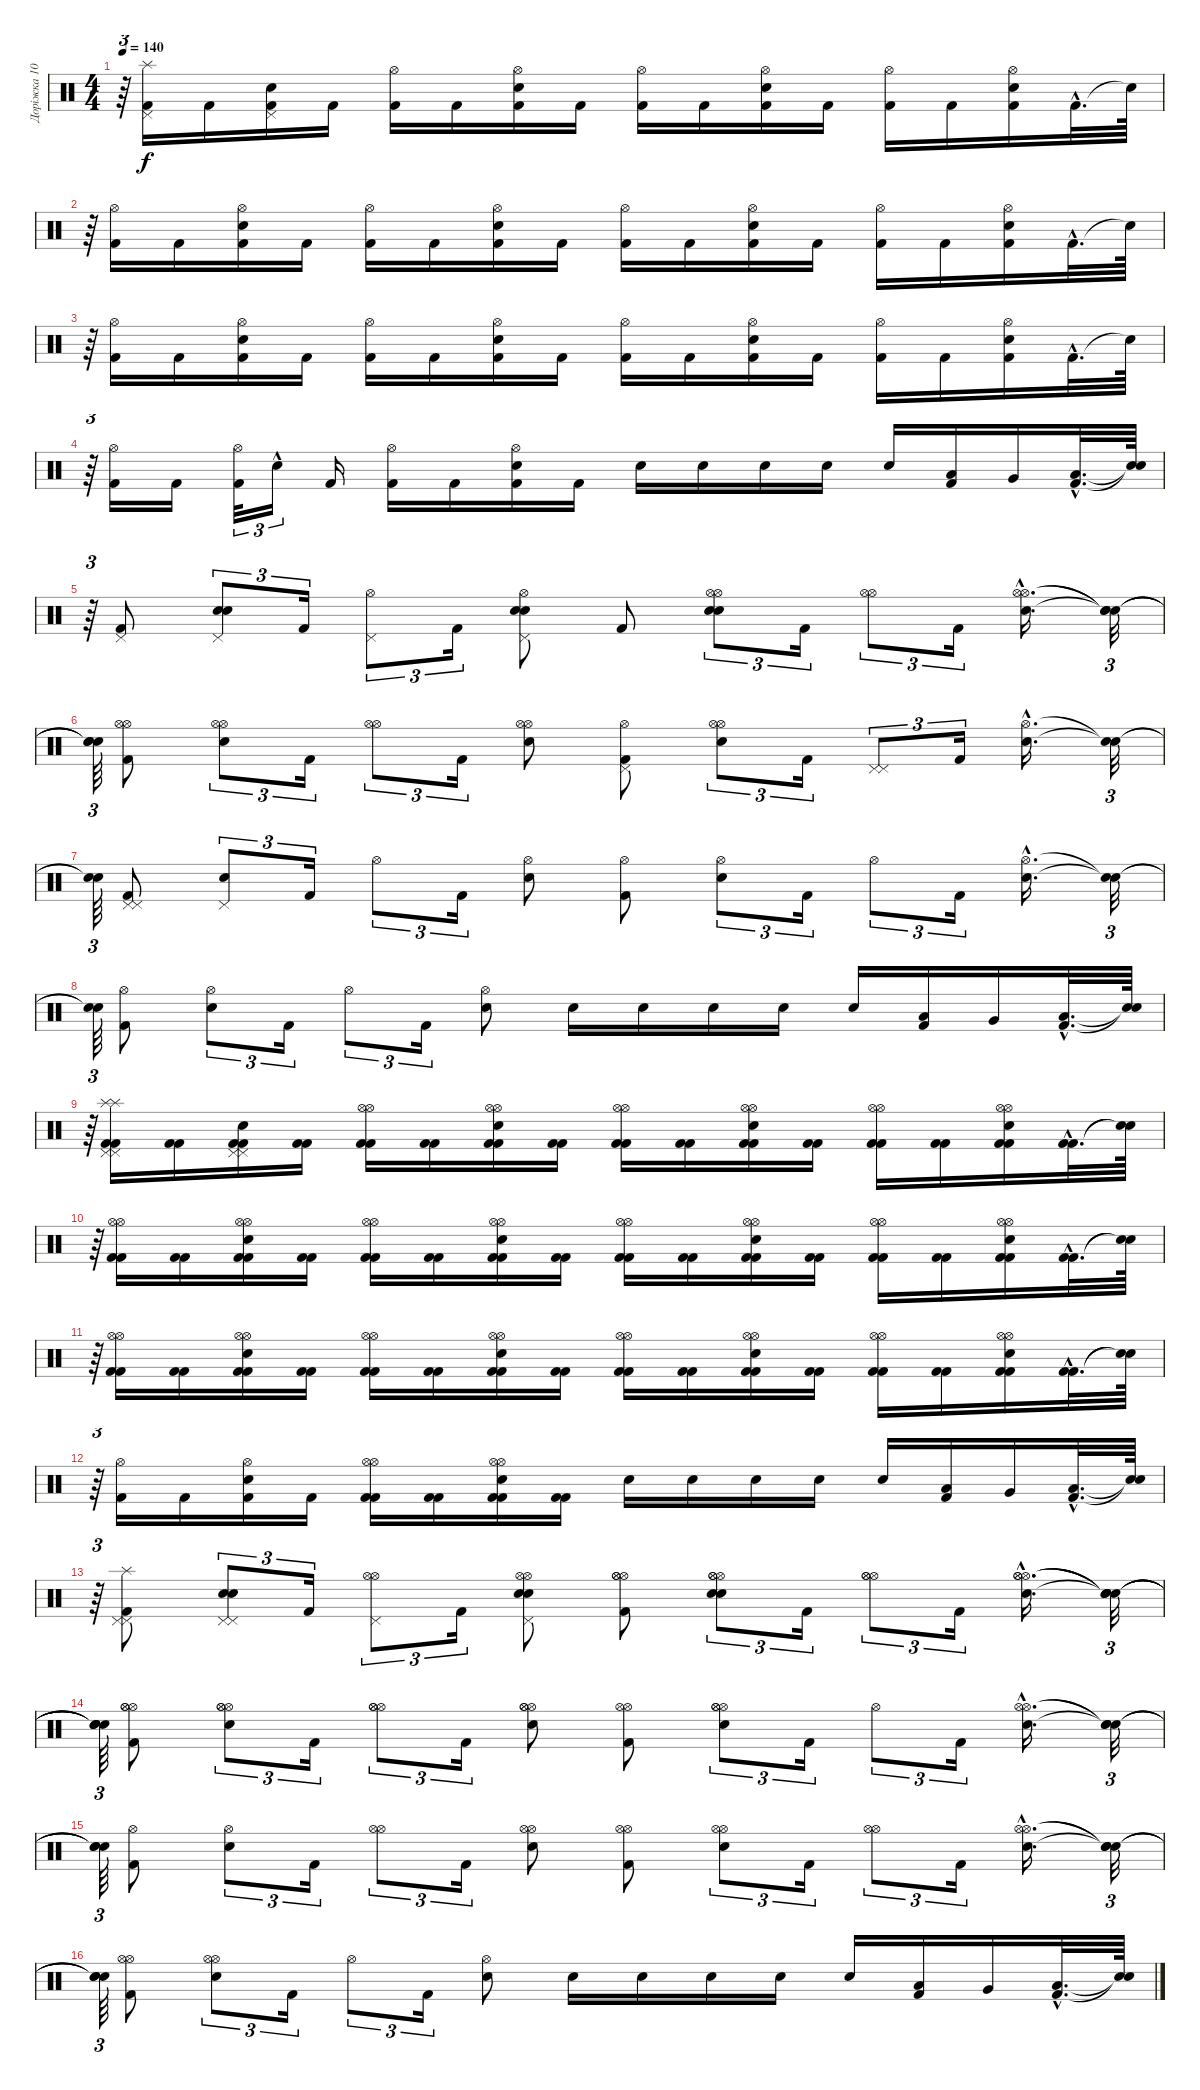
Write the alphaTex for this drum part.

\track ("Доріжка 10" "Доріжка 10") {instrument percussion}
\staff {score}
\articulation defaults
\ts (4 4)
\tempo 140
\clef neutral
\ks c
r.64{tu (3 2) dy f} ("Kick (hit) 2" "Pedal Hi-Hat (hit)" "Splash (hit)").16 "Kick (hit) 2".16 ("Kick (hit) 2" "Pedal Hi-Hat (hit)" "Electric Snare (hit)").16 "Kick (hit) 2".16 ("Kick (hit) 2" "Hi-Hat (open)").16 "Kick (hit) 2".16 ("Kick (hit) 2" "Hi-Hat (open)" "Electric Snare (hit)").16 "Kick (hit) 2".16 ("Hi-Hat (open)" "Kick (hit) 2").16 "Kick (hit) 2".16 ("Kick (hit) 2" "Hi-Hat (open)" "Electric Snare (hit)").16 "Kick (hit) 2".16 ("Kick (hit) 2" "Hi-Hat (open)").16 "Kick (hit) 2".16 ("Kick (hit) 2" "Hi-Hat (open)" "Electric Snare (hit)").16 "Kick (hit) 2"{hac}.32{d} "Snare (hit)"{t}.64 |
r.64{tu (3 2)} ("Kick (hit) 2" "Hi-Hat (open)").16 "Kick (hit) 2".16 ("Kick (hit) 2" "Hi-Hat (open)" "Electric Snare (hit)").16 "Kick (hit) 2".16 ("Kick (hit) 2" "Hi-Hat (open)").16 "Kick (hit) 2".16 ("Kick (hit) 2" "Hi-Hat (open)" "Electric Snare (hit)").16 "Kick (hit) 2".16 ("Kick (hit) 2" "Hi-Hat (open)").16 "Kick (hit) 2".16 ("Kick (hit) 2" "Hi-Hat (open)" "Electric Snare (hit)").16 "Kick (hit) 2".16 ("Kick (hit) 2" "Hi-Hat (open)").16 "Kick (hit) 2".16 ("Kick (hit) 2" "Hi-Hat (open)" "Electric Snare (hit)").16 "Kick (hit) 2"{hac}.32{d} "Snare (hit)"{t}.64 |
r.64{tu (3 2)} ("Kick (hit) 2" "Hi-Hat (open)").16 "Kick (hit) 2".16 ("Kick (hit) 2" "Hi-Hat (open)" "Electric Snare (hit)").16 "Kick (hit) 2".16 ("Kick (hit) 2" "Hi-Hat (open)").16 "Kick (hit) 2".16 ("Kick (hit) 2" "Hi-Hat (open)" "Electric Snare (hit)").16 "Kick (hit) 2".16 ("Kick (hit) 2" "Hi-Hat (open)").16 "Kick (hit) 2".16 ("Kick (hit) 2" "Hi-Hat (open)" "Electric Snare (hit)").16 "Kick (hit) 2".16 ("Kick (hit) 2" "Hi-Hat (open)").16 "Kick (hit) 2".16 ("Kick (hit) 2" "Hi-Hat (open)" "Electric Snare (hit)").16 "Kick (hit) 2"{hac}.32{d} "Snare (hit)"{t}.64 |
r.64{tu (3 2)} ("Hi-Hat (open)" "Kick (hit) 2").16 "Kick (hit) 2".16 ("Kick (hit) 2" "Hi-Hat (open)").32{tu (3 2)} "Electric Snare (hit)"{hac}.16{tu (3 2)} "Kick (hit) 2".16 ("Hi-Hat (open)" "Kick (hit) 2").16 "Kick (hit) 2".16 ("Kick (hit) 2" "Hi-Hat (open)" "Electric Snare (hit)").16 "Kick (hit) 2".16 "Electric Snare (hit)".16 "Electric Snare (hit)".16 "Electric Snare (hit)".16 "Electric Snare (hit)".16 "Electric Snare (hit)".16 ("Low Tom (hit)" "Kick (hit) 2").16 "Very Low Tom (hit)".16 ("Kick (hit) 2"{hac} "Low Floor Tom (hit)"{hac}).32{d} ("Snare (hit)"{t} "Snare (hit)"{t}).64 |
r.64{tu (3 2)} ("Kick (hit) 2" "Pedal Hi-Hat (hit)").8 ("Pedal Hi-Hat (hit)" "Electric Snare (hit)" "Electric Snare (hit)").8{tu (3 2)} "Kick (hit) 2".16{tu (3 2)} ("Hi-Hat (open)" "Pedal Hi-Hat (hit)").8{tu (3 2)} "Kick (hit) 2".16{tu (3 2)} ("Hi-Hat (open)" "Electric Snare (hit)" "Electric Snare (hit)" "Pedal Hi-Hat (hit)").8 "Kick (hit) 2".8 ("Electric Snare (hit)" "Electric Snare (hit)" "Hi-Hat (open)" "Hi-Hat (open)").8{tu (3 2)} "Kick (hit) 2".16{tu (3 2)} ("Hi-Hat (open)" "Hi-Hat (open)").8{tu (3 2)} "Kick (hit) 2".16{tu (3 2)} ("Hi-Hat (open)"{hac} "Electric Snare (hit)"{hac} "Hi-Hat (open)"{hac}).16{d} ("Snare (hit)"{t} "Snare (hit)"{t} "Snare (hit)"{t}).32{tu (3 2)} |
("Snare (hit)"{t} "Snare (hit)"{t} "Snare (hit)"{t}).64{tu (3 2)} ("Hi-Hat (open)" "Kick (hit) 2" "Hi-Hat (open)").8 ("Hi-Hat (open)" "Electric Snare (hit)" "Hi-Hat (open)").8{tu (3 2)} "Kick (hit) 2".16{tu (3 2)} ("Hi-Hat (open)" "Hi-Hat (open)").8{tu (3 2)} "Kick (hit) 2".16{tu (3 2)} ("Hi-Hat (open)" "Electric Snare (hit)" "Hi-Hat (open)").8 ("Pedal Hi-Hat (hit)" "Hi-Hat (open)" "Kick (hit) 2").8 ("Hi-Hat (open)" "Hi-Hat (open)" "Electric Snare (hit)").8{tu (3 2)} "Kick (hit) 2".16{tu (3 2)} ("Pedal Hi-Hat (hit)" "Pedal Hi-Hat (hit)").8{tu (3 2)} "Kick (hit) 2".16{tu (3 2)} ("Hi-Hat (open)"{hac} "Electric Snare (hit)"{hac}).16{d} ("Snare (hit)"{t} "Snare (hit)"{t}).32{tu (3 2)} |
("Snare (hit)"{t} "Snare (hit)"{t}).64{tu (3 2)} ("Kick (hit) 2" "Pedal Hi-Hat (hit)" "Pedal Hi-Hat (hit)").8 ("Pedal Hi-Hat (hit)" "Electric Snare (hit)").8{tu (3 2)} "Kick (hit) 2".16{tu (3 2)} "Hi-Hat (open)".8{tu (3 2)} "Kick (hit) 2".16{tu (3 2)} ("Hi-Hat (open)" "Electric Snare (hit)").8 ("Kick (hit) 2" "Hi-Hat (open)").8 ("Electric Snare (hit)" "Hi-Hat (open)").8{tu (3 2)} "Kick (hit) 2".16{tu (3 2)} "Hi-Hat (open)".8{tu (3 2)} "Kick (hit) 2".16{tu (3 2)} ("Hi-Hat (open)"{hac} "Electric Snare (hit)"{hac}).16{d} ("Snare (hit)"{t} "Snare (hit)"{t}).32{tu (3 2)} |
("Snare (hit)"{t} "Snare (hit)"{t}).64{tu (3 2)} ("Hi-Hat (open)" "Kick (hit) 2").8 ("Hi-Hat (open)" "Electric Snare (hit)").8{tu (3 2)} "Kick (hit) 2".16{tu (3 2)} "Hi-Hat (open)".8{tu (3 2)} "Kick (hit) 2".16{tu (3 2)} ("Electric Snare (hit)" "Hi-Hat (open)").8 "Electric Snare (hit)".16 "Electric Snare (hit)".16 "Electric Snare (hit)".16 "Electric Snare (hit)".16 "Electric Snare (hit)".16 ("Kick (hit) 2" "Low Tom (hit)").16 "Very Low Tom (hit)".16 ("Kick (hit) 2"{hac} "Low Floor Tom (hit)"{hac}).32{d} ("Snare (hit)"{t} "Snare (hit)"{t}).64 |
r.64{tu (3 2)} ("Pedal Hi-Hat (hit)" "Splash (hit)" "Pedal Hi-Hat (hit)" "Splash (hit)" "Kick (hit) 2" "Kick (hit) 2").16 ("Kick (hit) 2" "Kick (hit) 2").16 ("Kick (hit) 2" "Electric Snare (hit)" "Pedal Hi-Hat (hit)" "Pedal Hi-Hat (hit)" "Kick (hit) 2").16 ("Kick (hit) 2" "Kick (hit) 2").16 ("Kick (hit) 2" "Hi-Hat (open)" "Hi-Hat (open)" "Kick (hit) 2").16 ("Kick (hit) 2" "Kick (hit) 2").16 ("Electric Snare (hit)" "Hi-Hat (open)" "Kick (hit) 2" "Kick (hit) 2" "Hi-Hat (open)").16 ("Kick (hit) 2" "Kick (hit) 2").16 ("Hi-Hat (open)" "Kick (hit) 2" "Hi-Hat (open)" "Kick (hit) 2").16 ("Kick (hit) 2" "Kick (hit) 2").16 ("Kick (hit) 2" "Electric Snare (hit)" "Kick (hit) 2" "Hi-Hat (open)" "Hi-Hat (open)").16 ("Kick (hit) 2" "Kick (hit) 2").16 ("Hi-Hat (open)" "Hi-Hat (open)" "Kick (hit) 2" "Kick (hit) 2").16 ("Kick (hit) 2" "Kick (hit) 2").16 ("Electric Snare (hit)" "Kick (hit) 2" "Hi-Hat (open)" "Kick (hit) 2" "Hi-Hat (open)").16 ("Kick (hit) 2"{hac} "Kick (hit) 2"{hac}).32{d} ("Snare (hit)"{t} "Snare (hit)"{t}).64 |
r.64{tu (3 2)} ("Kick (hit) 2" "Hi-Hat (open)" "Hi-Hat (open)" "Kick (hit) 2").16 ("Kick (hit) 2" "Kick (hit) 2").16 ("Kick (hit) 2" "Hi-Hat (open)" "Kick (hit) 2" "Electric Snare (hit)" "Hi-Hat (open)").16 ("Kick (hit) 2" "Kick (hit) 2").16 ("Hi-Hat (open)" "Kick (hit) 2" "Kick (hit) 2" "Hi-Hat (open)").16 ("Kick (hit) 2" "Kick (hit) 2").16 ("Kick (hit) 2" "Hi-Hat (open)" "Electric Snare (hit)" "Hi-Hat (open)" "Kick (hit) 2").16 ("Kick (hit) 2" "Kick (hit) 2").16 ("Hi-Hat (open)" "Kick (hit) 2" "Kick (hit) 2" "Hi-Hat (open)").16 ("Kick (hit) 2" "Kick (hit) 2").16 ("Kick (hit) 2" "Hi-Hat (open)" "Hi-Hat (open)" "Electric Snare (hit)" "Kick (hit) 2").16 ("Kick (hit) 2" "Kick (hit) 2").16 ("Hi-Hat (open)" "Hi-Hat (open)" "Kick (hit) 2" "Kick (hit) 2").16 ("Kick (hit) 2" "Kick (hit) 2").16 ("Hi-Hat (open)" "Hi-Hat (open)" "Kick (hit) 2" "Electric Snare (hit)" "Kick (hit) 2").16 ("Kick (hit) 2"{hac} "Kick (hit) 2"{hac}).32{d} ("Snare (hit)"{t} "Snare (hit)"{t}).64 |
r.64{tu (3 2)} ("Kick (hit) 2" "Hi-Hat (open)" "Hi-Hat (open)" "Kick (hit) 2").16 ("Kick (hit) 2" "Kick (hit) 2").16 ("Electric Snare (hit)" "Kick (hit) 2" "Kick (hit) 2" "Hi-Hat (open)" "Hi-Hat (open)").16 ("Kick (hit) 2" "Kick (hit) 2").16 ("Hi-Hat (open)" "Kick (hit) 2" "Hi-Hat (open)" "Kick (hit) 2").16 ("Kick (hit) 2" "Kick (hit) 2").16 ("Hi-Hat (open)" "Hi-Hat (open)" "Kick (hit) 2" "Electric Snare (hit)" "Kick (hit) 2").16 ("Kick (hit) 2" "Kick (hit) 2").16 ("Hi-Hat (open)" "Kick (hit) 2" "Kick (hit) 2" "Hi-Hat (open)").16 ("Kick (hit) 2" "Kick (hit) 2").16 ("Hi-Hat (open)" "Kick (hit) 2" "Electric Snare (hit)" "Kick (hit) 2" "Hi-Hat (open)").16 ("Kick (hit) 2" "Kick (hit) 2").16 ("Kick (hit) 2" "Hi-Hat (open)" "Hi-Hat (open)" "Kick (hit) 2").16 ("Kick (hit) 2" "Kick (hit) 2").16 ("Kick (hit) 2" "Hi-Hat (open)" "Electric Snare (hit)" "Hi-Hat (open)" "Kick (hit) 2").16 ("Kick (hit) 2"{hac} "Kick (hit) 2"{hac}).32{d} ("Snare (hit)"{t} "Snare (hit)"{t}).64 |
r.64{tu (3 2)} ("Kick (hit) 2" "Hi-Hat (open)").16 "Kick (hit) 2".16 ("Kick (hit) 2" "Electric Snare (hit)" "Hi-Hat (open)").16 "Kick (hit) 2".16 ("Hi-Hat (open)" "Hi-Hat (open)" "Kick (hit) 2" "Kick (hit) 2").16 ("Kick (hit) 2" "Kick (hit) 2").16 ("Kick (hit) 2" "Hi-Hat (open)" "Electric Snare (hit)" "Kick (hit) 2" "Hi-Hat (open)").16 ("Kick (hit) 2" "Kick (hit) 2").16 "Electric Snare (hit)".16 "Electric Snare (hit)".16 "Electric Snare (hit)".16 "Electric Snare (hit)".16 "Electric Snare (hit)".16 ("Kick (hit) 2" "Low Tom (hit)").16 "Very Low Tom (hit)".16 ("Low Floor Tom (hit)"{hac} "Kick (hit) 2"{hac}).32{d} ("Snare (hit)"{t} "Snare (hit)"{t}).64 |
r.64{tu (3 2)} ("Kick (hit) 2" "Splash (hit)" "Pedal Hi-Hat (hit)" "Pedal Hi-Hat (hit)").8 ("Electric Snare (hit)" "Pedal Hi-Hat (hit)" "Pedal Hi-Hat (hit)" "Electric Snare (hit)").8{tu (3 2)} "Kick (hit) 2".16{tu (3 2)} ("Hi-Hat (open)" "Pedal Hi-Hat (hit)" "Hi-Hat (open)").8{tu (3 2)} "Kick (hit) 2".16{tu (3 2)} ("Hi-Hat (open)" "Pedal Hi-Hat (hit)" "Hi-Hat (open)" "Electric Snare (hit)" "Electric Snare (hit)").8 ("Kick (hit) 2" "Hi-Hat (open)" "Hi-Hat (open)" "Hi-Hat (open)").8 ("Hi-Hat (open)" "Hi-Hat (open)" "Hi-Hat (open)" "Electric Snare (hit)" "Electric Snare (hit)").8{tu (3 2)} "Kick (hit) 2".16{tu (3 2)} ("Hi-Hat (open)" "Hi-Hat (open)" "Hi-Hat (open)").8{tu (3 2)} "Kick (hit) 2".16{tu (3 2)} ("Hi-Hat (open)"{hac} "Electric Snare (hit)"{hac} "Hi-Hat (open)"{hac} "Hi-Hat (open)"{hac}).16{d} ("Snare (hit)"{t} "Snare (hit)"{t} "Snare (hit)"{t} "Snare (hit)"{t}).32{tu (3 2)} |
("Snare (hit)"{t} "Snare (hit)"{t} "Snare (hit)"{t} "Snare (hit)"{t}).64{tu (3 2)} ("Kick (hit) 2" "Hi-Hat (open)" "Hi-Hat (open)" "Hi-Hat (open)").8 ("Hi-Hat (open)" "Hi-Hat (open)" "Hi-Hat (open)" "Electric Snare (hit)").8{tu (3 2)} "Kick (hit) 2".16{tu (3 2)} ("Hi-Hat (open)" "Hi-Hat (open)" "Hi-Hat (open)").8{tu (3 2)} "Kick (hit) 2".16{tu (3 2)} ("Hi-Hat (open)" "Hi-Hat (open)" "Hi-Hat (open)" "Electric Snare (hit)").8 ("Kick (hit) 2" "Hi-Hat (open)" "Hi-Hat (open)").8 ("Electric Snare (hit)" "Hi-Hat (open)" "Hi-Hat (open)" "Hi-Hat (open)").8{tu (3 2)} "Kick (hit) 2".16{tu (3 2)} "Hi-Hat (open)".8{tu (3 2)} "Kick (hit) 2".16{tu (3 2)} ("Hi-Hat (open)"{hac} "Hi-Hat (open)"{hac} "Electric Snare (hit)"{hac}).16{d} ("Snare (hit)"{t} "Snare (hit)"{t} "Snare (hit)"{t}).32{tu (3 2)} |
("Snare (hit)"{t} "Snare (hit)"{t} "Snare (hit)"{t}).64{tu (3 2)} ("Kick (hit) 2" "Hi-Hat (open)").8 ("Electric Snare (hit)" "Hi-Hat (open)").8{tu (3 2)} "Kick (hit) 2".16{tu (3 2)} ("Hi-Hat (open)" "Hi-Hat (open)").8{tu (3 2)} "Kick (hit) 2".16{tu (3 2)} ("Hi-Hat (open)" "Electric Snare (hit)" "Hi-Hat (open)").8 ("Kick (hit) 2" "Hi-Hat (open)" "Hi-Hat (open)").8 ("Hi-Hat (open)" "Hi-Hat (open)" "Electric Snare (hit)").8{tu (3 2)} "Kick (hit) 2".16{tu (3 2)} ("Hi-Hat (open)" "Hi-Hat (open)").8{tu (3 2)} "Kick (hit) 2".16{tu (3 2)} ("Hi-Hat (open)"{hac} "Electric Snare (hit)"{hac} "Hi-Hat (open)"{hac}).16{d} ("Snare (hit)"{t} "Snare (hit)"{t} "Snare (hit)"{t}).32{tu (3 2)} |
("Snare (hit)"{t} "Snare (hit)"{t} "Snare (hit)"{t}).64{tu (3 2)} ("Kick (hit) 2" "Hi-Hat (open)" "Hi-Hat (open)").8 ("Electric Snare (hit)" "Hi-Hat (open)" "Hi-Hat (open)").8{tu (3 2)} "Kick (hit) 2".16{tu (3 2)} "Hi-Hat (open)".8{tu (3 2)} "Kick (hit) 2".16{tu (3 2)} ("Electric Snare (hit)" "Hi-Hat (open)").8 "Electric Snare (hit)".16 "Electric Snare (hit)".16 "Electric Snare (hit)".16 "Electric Snare (hit)".16 "Electric Snare (hit)".16 ("Kick (hit) 2" "Low Tom (hit)").16 "Very Low Tom (hit)".16 ("Low Floor Tom (hit)"{hac} "Kick (hit) 2"{hac}).32{d} ("Snare (hit)"{t} "Snare (hit)"{t}).64
